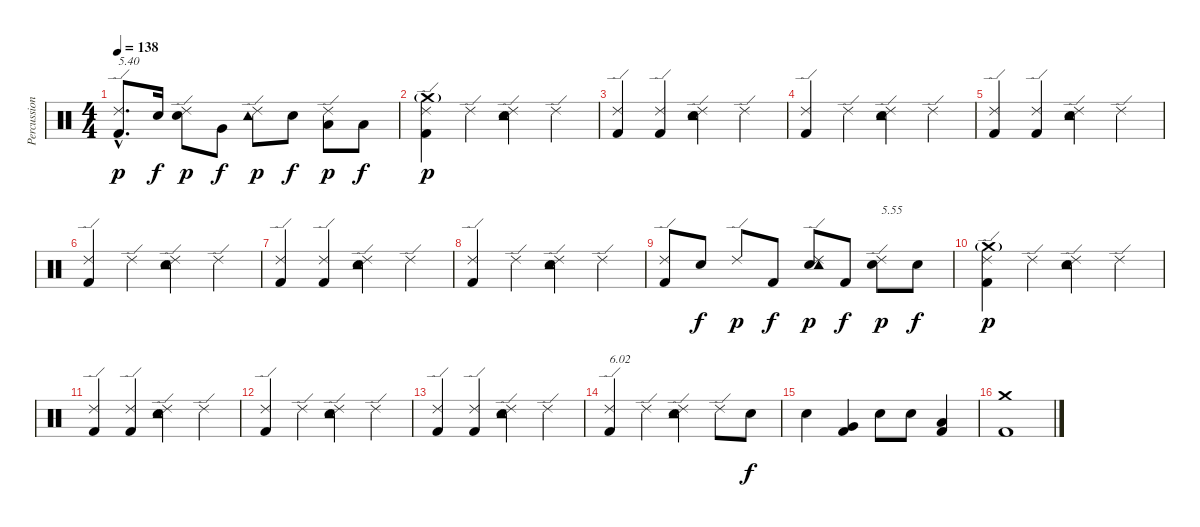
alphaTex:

\track ("Percussions" "Percussion") {instrument percussion}
\staff {score}
\articulation defaults
\ts (4 4)
\tempo 138
\clef neutral
\ks c
("Kick (hit) 2"{hac} "Ride (edge) 2"{hac}).8{d txt "5.40" dy p} "Snare (hit) 2".16{dy f} ("Snare (hit) 2" "Ride (edge) 2").8{dy p} "Very Low Tom (hit)".8{dy f} ("Tambourine (hit)" "Ride (edge) 2").8{dy p} "Snare (hit) 2".8{dy f} ("Low Floor Tom (hit)" "Ride (edge) 2").8{dy p} "Low Floor Tom (hit)".8{dy f} |
("Kick (hit) 2" "Crash medium (hit)"{g} "Ride (edge) 2").4{dy p} "Ride (edge) 2".4 ("Snare (hit) 2" "Tambourine (hit)" "Ride (edge) 2").4 "Ride (edge) 2".4 |
("Kick (hit) 2" "Ride (edge) 2").4 ("Kick (hit) 2" "Ride (edge) 2").4 ("Snare (hit) 2" "Tambourine (hit)" "Ride (edge) 2").4 "Ride (edge) 2".4 |
("Kick (hit) 2" "Ride (edge) 2").4 "Ride (edge) 2".4 ("Snare (hit) 2" "Tambourine (hit)" "Ride (edge) 2").4 "Ride (edge) 2".4 |
("Kick (hit) 2" "Ride (edge) 2").4 ("Kick (hit) 2" "Ride (edge) 2").4 ("Snare (hit) 2" "Tambourine (hit)" "Ride (edge) 2").4 "Ride (edge) 2".4 |
("Kick (hit) 2" "Ride (edge) 2").4 "Ride (edge) 2".4 ("Snare (hit) 2" "Tambourine (hit)" "Ride (edge) 2").4 "Ride (edge) 2".4 |
("Kick (hit) 2" "Ride (edge) 2").4 ("Kick (hit) 2" "Ride (edge) 2").4 ("Snare (hit) 2" "Tambourine (hit)" "Ride (edge) 2").4 "Ride (edge) 2".4 |
("Kick (hit) 2" "Ride (edge) 2").4 "Ride (edge) 2".4 ("Snare (hit) 2" "Tambourine (hit)" "Ride (edge) 2").4 "Ride (edge) 2".4 |
("Kick (hit) 2" "Ride (edge) 2").8 "Snare (hit) 2".8{dy f} "Ride (edge) 2".8{dy p} "Kick (hit) 2".8{dy f} ("Snare (hit) 2" "Tambourine (hit)" "Ride (edge) 2").8{dy p} "Kick (hit) 2".8{dy f} ("Snare (hit) 2" "Ride (edge) 2").8{txt "5.55" dy p} "Snare (hit) 2".8{dy f} |
("Kick (hit) 2" "Crash medium (hit)"{g} "Ride (edge) 2").4{dy p} "Ride (edge) 2".4 ("Snare (hit) 2" "Tambourine (hit)" "Ride (edge) 2").4 "Ride (edge) 2".4 |
("Kick (hit) 2" "Ride (edge) 2").4 ("Kick (hit) 2" "Ride (edge) 2").4 ("Snare (hit) 2" "Tambourine (hit)" "Ride (edge) 2").4 "Ride (edge) 2".4 |
("Kick (hit) 2" "Ride (edge) 2").4 "Ride (edge) 2".4 ("Snare (hit) 2" "Tambourine (hit)" "Ride (edge) 2").4 "Ride (edge) 2".4 |
("Kick (hit) 2" "Ride (edge) 2").4 ("Kick (hit) 2" "Ride (edge) 2").4 ("Snare (hit) 2" "Tambourine (hit)" "Ride (edge) 2").4 "Ride (edge) 2".4 |
("Kick (hit) 2" "Ride (edge) 2").4{txt "6.02"} "Ride (edge) 2".4 ("Snare (hit) 2" "Tambourine (hit)" "Ride (edge) 2").4 "Ride (edge) 2".8 "Snare (hit) 2".8{dy f} |
"Snare (hit) 2".4 ("Kick (hit) 2" "Very Low Tom (hit)").4 "Snare (hit) 2".8 "Snare (hit) 2".8 ("Kick (hit) 2" "Low Floor Tom (hit)").4 |
("Kick (hit) 2" "Crash medium (hit)").1
